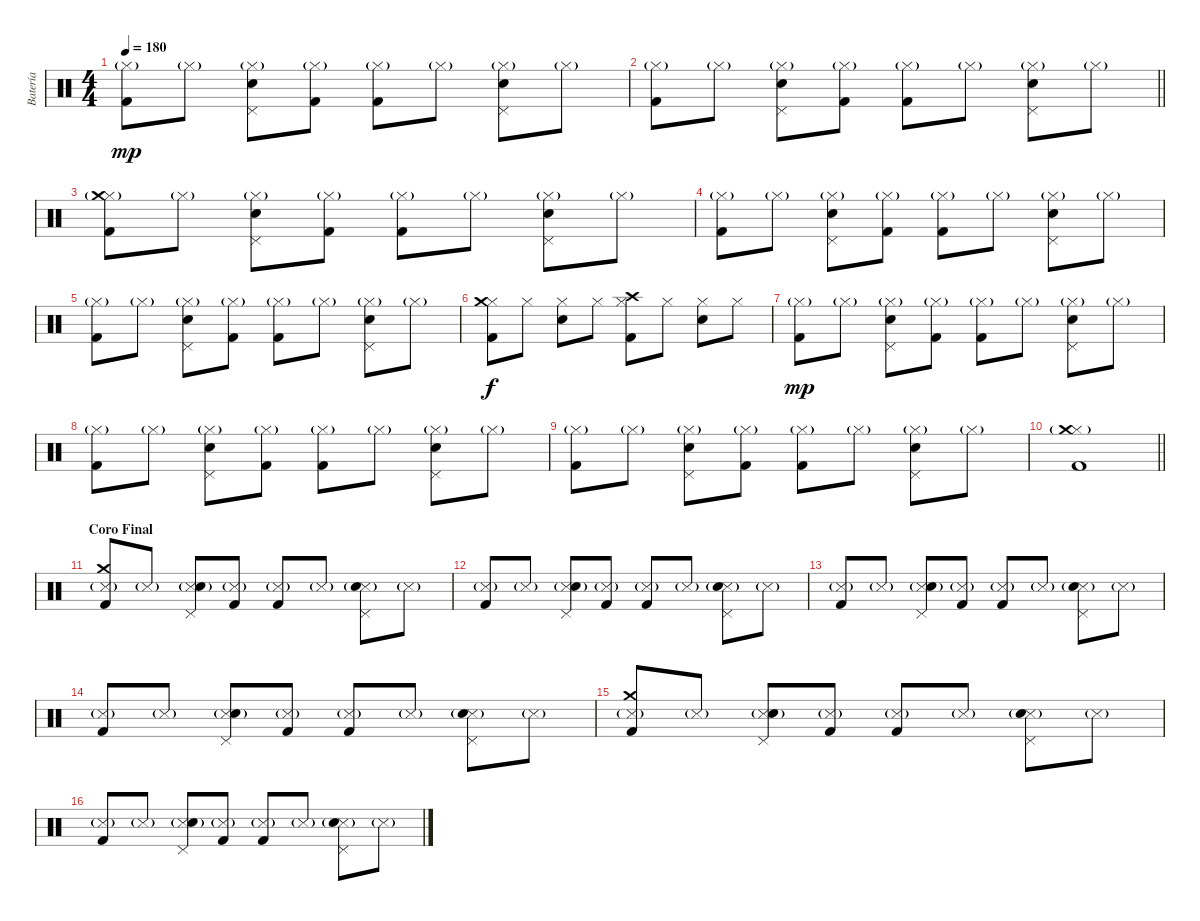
\track ("Batería" "Batería") {instrument percussion}
\staff {score}
\articulation defaults
\ts (4 4)
\tempo 180
\clef neutral
\ks c
("Hi-Hat (closed)"{g} "Kick (hit) 2").8{dy mp} "Hi-Hat (closed)"{g}.8 ("Hi-Hat (closed)"{g} "Electric Snare (hit)" "Pedal Hi-Hat (hit)").8 ("Hi-Hat (closed)"{g} "Kick (hit) 2").8 ("Hi-Hat (closed)"{g} "Kick (hit) 2").8 "Hi-Hat (closed)"{g}.8 ("Hi-Hat (closed)"{g} "Electric Snare (hit)" "Pedal Hi-Hat (hit)").8 "Hi-Hat (closed)"{g}.8 |
\barLineRight lightlight
("Hi-Hat (closed)"{g} "Kick (hit) 2").8 "Hi-Hat (closed)"{g}.8 ("Hi-Hat (closed)"{g} "Electric Snare (hit)" "Pedal Hi-Hat (hit)").8 ("Hi-Hat (closed)"{g} "Kick (hit) 2").8 ("Hi-Hat (closed)"{g} "Kick (hit) 2").8 "Hi-Hat (closed)"{g}.8 ("Hi-Hat (closed)"{g} "Electric Snare (hit)" "Pedal Hi-Hat (hit)").8 "Hi-Hat (closed)"{g}.8 |
\section ("" "")
("Hi-Hat (closed)"{g} "Kick (hit) 2" "Crash medium (hit)").8 "Hi-Hat (closed)"{g}.8 ("Hi-Hat (closed)"{g} "Electric Snare (hit)" "Pedal Hi-Hat (hit)").8 ("Hi-Hat (closed)"{g} "Kick (hit) 2").8 ("Hi-Hat (closed)"{g} "Kick (hit) 2").8 "Hi-Hat (closed)"{g}.8 ("Hi-Hat (closed)"{g} "Electric Snare (hit)" "Pedal Hi-Hat (hit)").8 "Hi-Hat (closed)"{g}.8 |
("Hi-Hat (closed)"{g} "Kick (hit) 2").8 "Hi-Hat (closed)"{g}.8 ("Hi-Hat (closed)"{g} "Electric Snare (hit)" "Pedal Hi-Hat (hit)").8 ("Hi-Hat (closed)"{g} "Kick (hit) 2").8 ("Hi-Hat (closed)"{g} "Kick (hit) 2").8 "Hi-Hat (closed)"{g}.8 ("Hi-Hat (closed)"{g} "Electric Snare (hit)" "Pedal Hi-Hat (hit)").8 "Hi-Hat (closed)"{g}.8 |
("Hi-Hat (closed)"{g} "Kick (hit) 2").8 "Hi-Hat (closed)"{g}.8 ("Hi-Hat (closed)"{g} "Electric Snare (hit)" "Pedal Hi-Hat (hit)").8 ("Hi-Hat (closed)"{g} "Kick (hit) 2").8 ("Hi-Hat (closed)"{g} "Kick (hit) 2").8 "Hi-Hat (closed)"{g}.8 ("Hi-Hat (closed)"{g} "Electric Snare (hit)" "Pedal Hi-Hat (hit)").8 "Hi-Hat (closed)"{g}.8 |
("Hi-Hat (closed)" "Kick (hit) 2" "Crash medium (hit)").8{dy f} "Hi-Hat (closed)".8 ("Hi-Hat (closed)" "Electric Snare (hit)").8 "Hi-Hat (closed)".8 ("Hi-Hat (closed)" "Crash high (hit)" "Kick (hit) 2").8 "Hi-Hat (closed)".8 ("Hi-Hat (closed)" "Electric Snare (hit)").8 "Hi-Hat (closed)".8 |
("Hi-Hat (closed)"{g} "Kick (hit) 2").8{dy mp} "Hi-Hat (closed)"{g}.8 ("Hi-Hat (closed)"{g} "Electric Snare (hit)" "Pedal Hi-Hat (hit)").8 ("Hi-Hat (closed)"{g} "Kick (hit) 2").8 ("Hi-Hat (closed)"{g} "Kick (hit) 2").8 "Hi-Hat (closed)"{g}.8 ("Hi-Hat (closed)"{g} "Electric Snare (hit)" "Pedal Hi-Hat (hit)").8 "Hi-Hat (closed)"{g}.8 |
("Hi-Hat (closed)"{g} "Kick (hit) 2").8 "Hi-Hat (closed)"{g}.8 ("Hi-Hat (closed)"{g} "Electric Snare (hit)" "Pedal Hi-Hat (hit)").8 ("Hi-Hat (closed)"{g} "Kick (hit) 2").8 ("Hi-Hat (closed)"{g} "Kick (hit) 2").8 "Hi-Hat (closed)"{g}.8 ("Hi-Hat (closed)"{g} "Electric Snare (hit)" "Pedal Hi-Hat (hit)").8 "Hi-Hat (closed)"{g}.8 |
("Hi-Hat (closed)"{g} "Kick (hit) 2").8 "Hi-Hat (closed)"{g}.8 ("Hi-Hat (closed)"{g} "Electric Snare (hit)" "Pedal Hi-Hat (hit)").8 ("Hi-Hat (closed)"{g} "Kick (hit) 2").8 ("Hi-Hat (closed)"{g} "Kick (hit) 2").8 "Hi-Hat (closed)"{g}.8 ("Hi-Hat (closed)"{g} "Electric Snare (hit)" "Pedal Hi-Hat (hit)").8 "Hi-Hat (closed)"{g}.8 |
\barLineRight lightlight
("Hi-Hat (closed)"{g} "Kick (hit) 2" "Crash medium (hit)").1 |
\section ("" "Coro Final")
("Snare (side stick) 3"{g} "Kick (hit) 2" "Crash medium (hit)").8 "Snare (side stick) 3"{g}.8 ("Snare (side stick) 3"{g} "Electric Snare (hit)" "Pedal Hi-Hat (hit)").8 ("Snare (side stick) 3"{g} "Kick (hit) 2").8 ("Snare (side stick) 3"{g} "Kick (hit) 2").8 "Snare (side stick) 3"{g}.8 ("Snare (side stick) 3"{g} "Electric Snare (hit)" "Pedal Hi-Hat (hit)").8 "Snare (side stick) 3"{g}.8 |
("Snare (side stick) 3"{g} "Kick (hit) 2").8 "Snare (side stick) 3"{g}.8 ("Snare (side stick) 3"{g} "Electric Snare (hit)" "Pedal Hi-Hat (hit)").8 ("Snare (side stick) 3"{g} "Kick (hit) 2").8 ("Snare (side stick) 3"{g} "Kick (hit) 2").8 "Snare (side stick) 3"{g}.8 ("Snare (side stick) 3"{g} "Electric Snare (hit)" "Pedal Hi-Hat (hit)").8 "Snare (side stick) 3"{g}.8 |
("Snare (side stick) 3"{g} "Kick (hit) 2").8 "Snare (side stick) 3"{g}.8 ("Snare (side stick) 3"{g} "Electric Snare (hit)" "Pedal Hi-Hat (hit)").8 ("Snare (side stick) 3"{g} "Kick (hit) 2").8 ("Snare (side stick) 3"{g} "Kick (hit) 2").8 "Snare (side stick) 3"{g}.8 ("Snare (side stick) 3"{g} "Electric Snare (hit)" "Pedal Hi-Hat (hit)").8 "Snare (side stick) 3"{g}.8 |
("Snare (side stick) 3"{g} "Kick (hit) 2").8 "Snare (side stick) 3"{g}.8 ("Snare (side stick) 3"{g} "Electric Snare (hit)" "Pedal Hi-Hat (hit)").8 ("Snare (side stick) 3"{g} "Kick (hit) 2").8 ("Snare (side stick) 3"{g} "Kick (hit) 2").8 "Snare (side stick) 3"{g}.8 ("Snare (side stick) 3"{g} "Electric Snare (hit)" "Pedal Hi-Hat (hit)").8 "Snare (side stick) 3"{g}.8 |
("Snare (side stick) 3"{g} "Kick (hit) 2" "Crash medium (hit)").8 "Snare (side stick) 3"{g}.8 ("Snare (side stick) 3"{g} "Electric Snare (hit)" "Pedal Hi-Hat (hit)").8 ("Snare (side stick) 3"{g} "Kick (hit) 2").8 ("Snare (side stick) 3"{g} "Kick (hit) 2").8 "Snare (side stick) 3"{g}.8 ("Snare (side stick) 3"{g} "Electric Snare (hit)" "Pedal Hi-Hat (hit)").8 "Snare (side stick) 3"{g}.8 |
("Snare (side stick) 3"{g} "Kick (hit) 2").8 "Snare (side stick) 3"{g}.8 ("Snare (side stick) 3"{g} "Electric Snare (hit)" "Pedal Hi-Hat (hit)").8 ("Snare (side stick) 3"{g} "Kick (hit) 2").8 ("Snare (side stick) 3"{g} "Kick (hit) 2").8 "Snare (side stick) 3"{g}.8 ("Snare (side stick) 3"{g} "Electric Snare (hit)" "Pedal Hi-Hat (hit)").8 "Snare (side stick) 3"{g}.8
